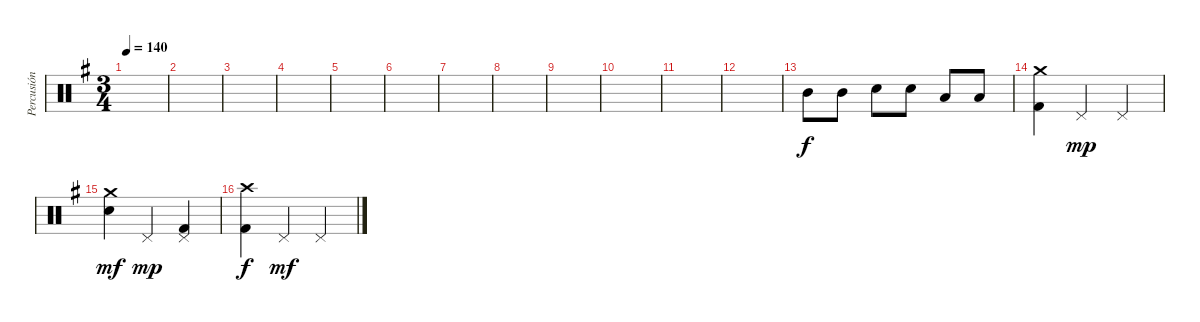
\track ("Percusión" "Percusión") {instrument percussion}
\staff {score}
\articulation defaults
\ts (3 4)
\tempo 140
\clef neutral
\ks g
|
|
|
|
|
|
|
|
|
|
|
|
"Mid Tom (hit)".8 "Mid Tom (hit)".8 "Snare (hit) 2".8 "Snare (hit) 2".8 "Low Tom (hit)".8 "Low Tom (hit)".8 |
("Crash medium (hit)" "Kick (hit) 2").4 "Pedal Hi-Hat (hit)".4{dy mp} "Pedal Hi-Hat (hit)".4 |
("Crash medium (hit)" "Snare (hit) 2").4{dy mf} "Pedal Hi-Hat (hit)".4{dy mp} ("Pedal Hi-Hat (hit)" "Kick (hit) 2").4 |
("Crash high (hit)" "Kick (hit) 2").4{dy f} "Pedal Hi-Hat (hit)".4{dy mf} "Pedal Hi-Hat (hit)".4
